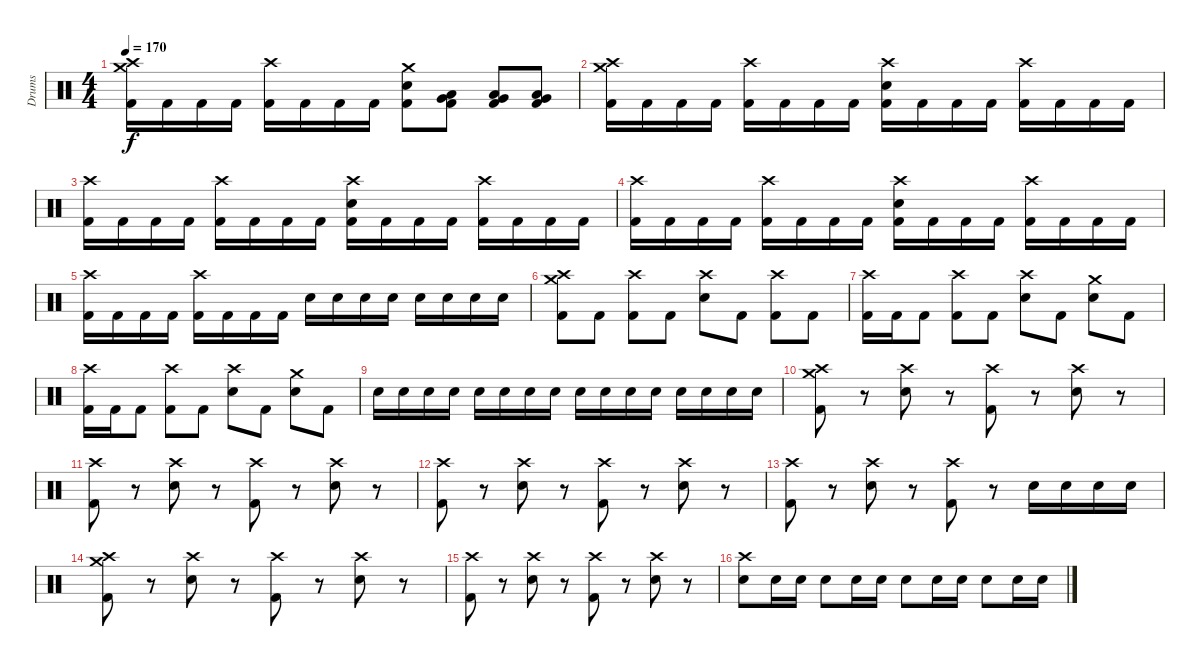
\track ("Drums" "Drums") {instrument percussion}
\staff {score}
\articulation defaults
\ts (4 4)
\tempo 170
\clef neutral
\ks c
("Crash medium (hit)" "Crash high (hit)" "Kick (hit) 2").16{dy f} "Kick (hit) 2".16 "Kick (hit) 2".16 "Kick (hit) 2".16 ("Crash high (hit)" "Kick (hit) 2").16 "Kick (hit) 2".16 "Kick (hit) 2".16 "Kick (hit) 2".16 ("Crash medium (hit)" "Snare (hit) 2" "Kick (hit) 2").8 ("Very Low Tom (hit)" "Low Tom (hit)" "Kick (hit) 2").8 ("Very Low Tom (hit)" "Low Tom (hit)" "Kick (hit) 2").8 ("Very Low Tom (hit)" "Low Tom (hit)" "Kick (hit) 2").8 |
("Crash medium (hit)" "Crash high (hit)" "Kick (hit) 2").16 "Kick (hit) 2".16 "Kick (hit) 2".16 "Kick (hit) 2".16 ("Crash high (hit)" "Kick (hit) 2").16 "Kick (hit) 2".16 "Kick (hit) 2".16 "Kick (hit) 2".16 ("Crash high (hit)" "Snare (hit) 2" "Kick (hit) 2").16 "Kick (hit) 2".16 "Kick (hit) 2".16 "Kick (hit) 2".16 ("Crash high (hit)" "Kick (hit) 2").16 "Kick (hit) 2".16 "Kick (hit) 2".16 "Kick (hit) 2".16 |
("Crash high (hit)" "Kick (hit) 2").16 "Kick (hit) 2".16 "Kick (hit) 2".16 "Kick (hit) 2".16 ("Crash high (hit)" "Kick (hit) 2").16 "Kick (hit) 2".16 "Kick (hit) 2".16 "Kick (hit) 2".16 ("Crash high (hit)" "Snare (hit) 2" "Kick (hit) 2").16 "Kick (hit) 2".16 "Kick (hit) 2".16 "Kick (hit) 2".16 ("Crash high (hit)" "Kick (hit) 2").16 "Kick (hit) 2".16 "Kick (hit) 2".16 "Kick (hit) 2".16 |
("Crash high (hit)" "Kick (hit) 2").16 "Kick (hit) 2".16 "Kick (hit) 2".16 "Kick (hit) 2".16 ("Crash high (hit)" "Kick (hit) 2").16 "Kick (hit) 2".16 "Kick (hit) 2".16 "Kick (hit) 2".16 ("Crash high (hit)" "Snare (hit) 2" "Kick (hit) 2").16 "Kick (hit) 2".16 "Kick (hit) 2".16 "Kick (hit) 2".16 ("Crash high (hit)" "Kick (hit) 2").16 "Kick (hit) 2".16 "Kick (hit) 2".16 "Kick (hit) 2".16 |
("Crash high (hit)" "Kick (hit) 2").16 "Kick (hit) 2".16 "Kick (hit) 2".16 "Kick (hit) 2".16 ("Crash high (hit)" "Kick (hit) 2").16 "Kick (hit) 2".16 "Kick (hit) 2".16 "Kick (hit) 2".16 "Snare (hit) 2".16 "Snare (hit) 2".16 "Snare (hit) 2".16 "Snare (hit) 2".16 "Snare (hit) 2".16 "Snare (hit) 2".16 "Snare (hit) 2".16 "Snare (hit) 2".16 |
("Crash medium (hit)" "Crash high (hit)" "Kick (hit) 2").8 "Kick (hit) 2".8 ("Crash high (hit)" "Kick (hit) 2").8 "Kick (hit) 2".8 ("Crash high (hit)" "Snare (hit) 2").8 "Kick (hit) 2".8 ("Crash high (hit)" "Kick (hit) 2").8 "Kick (hit) 2".8 |
("Crash high (hit)" "Kick (hit) 2").16 "Kick (hit) 2".16 "Kick (hit) 2".8 ("Crash high (hit)" "Kick (hit) 2").8 "Kick (hit) 2".8 ("Crash high (hit)" "Snare (hit) 2").8 "Kick (hit) 2".8 ("Crash medium (hit)" "Snare (hit) 2").8 "Kick (hit) 2".8 |
("Crash high (hit)" "Kick (hit) 2").16 "Kick (hit) 2".16 "Kick (hit) 2".8 ("Crash high (hit)" "Kick (hit) 2").8 "Kick (hit) 2".8 ("Crash high (hit)" "Snare (hit) 2").8 "Kick (hit) 2".8 ("Crash medium (hit)" "Snare (hit) 2").8 "Kick (hit) 2".8 |
"Snare (hit) 2".16 "Snare (hit) 2".16 "Snare (hit) 2".16 "Snare (hit) 2".16 "Snare (hit) 2".16 "Snare (hit) 2".16 "Snare (hit) 2".16 "Snare (hit) 2".16 "Snare (hit) 2".16 "Snare (hit) 2".16 "Snare (hit) 2".16 "Snare (hit) 2".16 "Snare (hit) 2".16 "Snare (hit) 2".16 "Snare (hit) 2".16 "Snare (hit) 2".16 |
("Crash medium (hit)" "Crash high (hit)" "Kick (hit) 2").8 r.8 ("Crash high (hit)" "Snare (hit) 2").8 r.8 ("Crash high (hit)" "Kick (hit) 2").8 r.8 ("Crash high (hit)" "Snare (hit) 2").8 r.8 |
("Crash high (hit)" "Kick (hit) 2").8 r.8 ("Crash high (hit)" "Snare (hit) 2").8 r.8 ("Crash high (hit)" "Kick (hit) 2").8 r.8 ("Crash high (hit)" "Snare (hit) 2").8 r.8 |
("Crash high (hit)" "Kick (hit) 2").8 r.8 ("Crash high (hit)" "Snare (hit) 2").8 r.8 ("Crash high (hit)" "Kick (hit) 2").8 r.8 ("Crash high (hit)" "Snare (hit) 2").8 r.8 |
("Crash high (hit)" "Kick (hit) 2").8 r.8 ("Crash high (hit)" "Snare (hit) 2").8 r.8 ("Crash high (hit)" "Kick (hit) 2").8 r.8 "Snare (hit) 2".16 "Snare (hit) 2".16 "Snare (hit) 2".16 "Snare (hit) 2".16 |
("Crash medium (hit)" "Crash high (hit)" "Kick (hit) 2").8 r.8 ("Crash high (hit)" "Snare (hit) 2").8 r.8 ("Crash high (hit)" "Kick (hit) 2").8 r.8 ("Crash high (hit)" "Snare (hit) 2").8 r.8 |
("Crash high (hit)" "Kick (hit) 2").8 r.8 ("Crash high (hit)" "Snare (hit) 2").8 r.8 ("Crash high (hit)" "Kick (hit) 2").8 r.8 ("Crash high (hit)" "Snare (hit) 2").8 r.8 |
("Crash high (hit)" "Snare (hit) 2").8 "Snare (hit) 2".16 "Snare (hit) 2".16 "Snare (hit) 2".8 "Snare (hit) 2".16 "Snare (hit) 2".16 "Snare (hit) 2".8 "Snare (hit) 2".16 "Snare (hit) 2".16 "Snare (hit) 2".8 "Snare (hit) 2".16 "Snare (hit) 2".16
